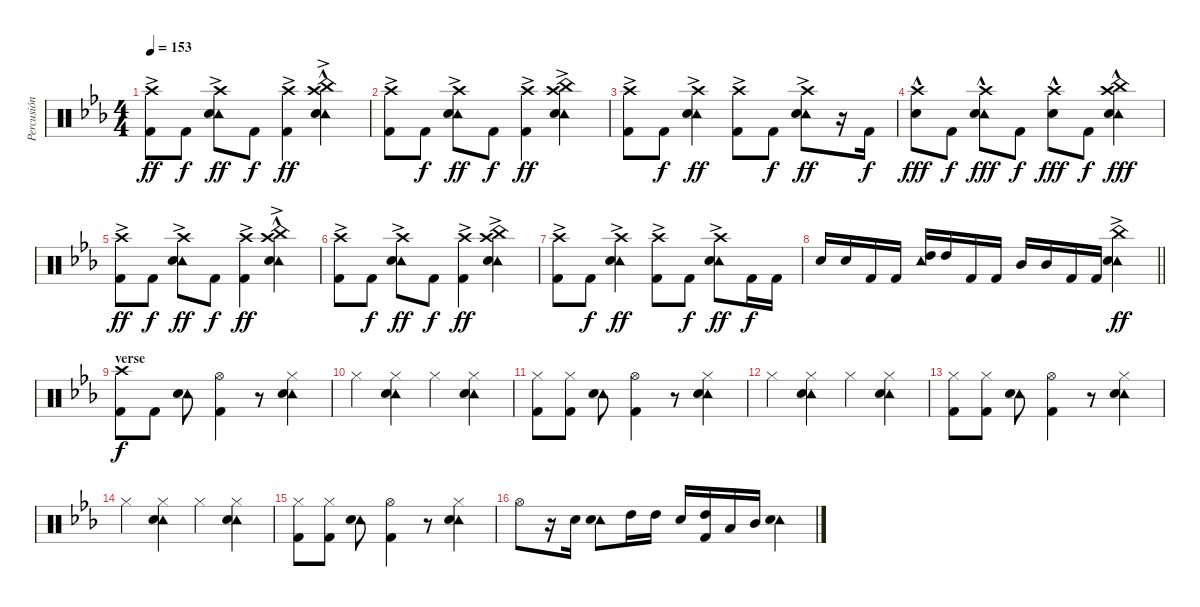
\track ("Percusión" "Percusión") {instrument percussion}
\staff {score}
\articulation defaults
\ts (4 4)
\tempo 153
\clef neutral
\ks eb
("Crash high (hit)"{ac} "Kick (hit) 2").8{dy ff} "Kick (hit) 2".8{dy f} ("Tambourine (hit)" "Crash high (hit)"{ac} "Snare (hit) 2").8{dy ff} "Kick (hit) 2".8{dy f} ("Crash high (hit)"{ac} "Kick (hit) 2").4{dy ff} ("Tambourine (hit)" "China (hit)"{hac} "Crash high (hit)"{ac} "Snare (hit) 2").4 |
("Crash high (hit)"{ac} "Kick (hit) 2").8 "Kick (hit) 2".8{dy f} ("Tambourine (hit)" "Crash high (hit)"{ac} "Snare (hit) 2").8{dy ff} "Kick (hit) 2".8{dy f} ("Crash high (hit)"{ac} "Kick (hit) 2").4{dy ff} ("Tambourine (hit)" "China (hit)"{ac} "Crash high (hit)"{ac} "Snare (hit) 2").4 |
("Crash high (hit)"{ac} "Kick (hit) 2").8 "Kick (hit) 2".8{dy f} ("Tambourine (hit)" "Crash high (hit)"{ac} "Snare (hit) 2").4{dy ff} ("Crash high (hit)"{ac} "Kick (hit) 2").8 "Kick (hit) 2".8{dy f} ("Tambourine (hit)" "Crash high (hit)"{ac} "Snare (hit) 2").8{dy ff} r.16 "Kick (hit) 2".16{dy f} |
("Crash high (hit)"{hac} "Snare (hit) 2").8{dy fff} "Kick (hit) 2".8{dy f} ("Tambourine (hit)" "Crash high (hit)"{hac} "Snare (hit) 2").8{dy fff} "Kick (hit) 2".8{dy f} ("Crash high (hit)"{hac} "Snare (hit) 2").8{dy fff} "Kick (hit) 2".8{dy f} ("Tambourine (hit)" "China (hit)"{hac} "Crash high (hit)"{hac} "Snare (hit) 2").4{dy fff} |
("Crash high (hit)"{ac} "Kick (hit) 2").8{dy ff} "Kick (hit) 2".8{dy f} ("Tambourine (hit)" "Crash high (hit)"{ac} "Snare (hit) 2").8{dy ff} "Kick (hit) 2".8{dy f} ("Crash high (hit)"{ac} "Kick (hit) 2").4{dy ff} ("Tambourine (hit)" "China (hit)"{hac} "Crash high (hit)"{ac} "Snare (hit) 2").4 |
("Crash high (hit)"{ac} "Kick (hit) 2").8 "Kick (hit) 2".8{dy f} ("Tambourine (hit)" "Crash high (hit)"{ac} "Snare (hit) 2").8{dy ff} "Kick (hit) 2".8{dy f} ("Crash high (hit)"{ac} "Kick (hit) 2").4{dy ff} ("Tambourine (hit)" "China (hit)"{ac} "Crash high (hit)"{ac} "Snare (hit) 2").4 |
("Crash high (hit)"{ac} "Kick (hit) 2").8 "Kick (hit) 2".8{dy f} ("Tambourine (hit)" "Crash high (hit)"{ac} "Snare (hit) 2").4{dy ff} ("Crash high (hit)"{ac} "Kick (hit) 2").8 "Kick (hit) 2".8{dy f} ("Tambourine (hit)" "Crash high (hit)"{ac} "Snare (hit) 2").8{dy ff} "Kick (hit) 2".16{dy f} "Kick (hit) 2".16 |
\barLineRight lightlight "Snare (hit) 2".16 "Snare (hit) 2".16 "Kick (hit) 2".16 "Kick (hit) 2".16
("Tambourine (hit)" "High Tom (hit)").16 "High Tom (hit)".16 "Kick (hit) 2".16 "Kick (hit) 2".16 "Mid Tom (hit)".16 "Mid Tom (hit)".16 "Kick (hit) 2".16 "Kick (hit) 2".16 ("Tambourine (hit)" "China (hit)"{ac} "Snare (hit) 2").4{dy ff} |
\section ("" "verse")
("Crash high (hit)" "Kick (hit) 2").8{dy f} "Kick (hit) 2".8 ("Tambourine (hit)" "Snare (hit) 2").8 ("Hi-Hat (open)" "Kick (hit) 2").4 r.8 ("Tambourine (hit)" "Hi-Hat (closed)" "Snare (hit) 2").4 |
"Hi-Hat (closed)".4 ("Tambourine (hit)" "Hi-Hat (closed)" "Snare (hit) 2").4 "Hi-Hat (closed)".4 ("Tambourine (hit)" "Hi-Hat (closed)" "Snare (hit) 2").4 |
("Hi-Hat (closed)" "Kick (hit) 2").8 ("Hi-Hat (closed)" "Kick (hit) 2").8 ("Tambourine (hit)" "Snare (hit) 2").8 ("Hi-Hat (open)" "Kick (hit) 2").4 r.8 ("Tambourine (hit)" "Hi-Hat (closed)" "Snare (hit) 2").4 |
"Hi-Hat (closed)".4 ("Tambourine (hit)" "Hi-Hat (closed)" "Snare (hit) 2").4 "Hi-Hat (closed)".4 ("Tambourine (hit)" "Hi-Hat (closed)" "Snare (hit) 2").4 |
("Hi-Hat (closed)" "Kick (hit) 2").8 ("Hi-Hat (closed)" "Kick (hit) 2").8 ("Tambourine (hit)" "Snare (hit) 2").8 ("Hi-Hat (open)" "Kick (hit) 2").4 r.8 ("Tambourine (hit)" "Hi-Hat (closed)" "Snare (hit) 2").4 |
"Hi-Hat (closed)".4 ("Tambourine (hit)" "Hi-Hat (closed)" "Snare (hit) 2").4 "Hi-Hat (closed)".4 ("Tambourine (hit)" "Hi-Hat (closed)" "Snare (hit) 2").4 |
("Hi-Hat (closed)" "Kick (hit) 2").8 ("Hi-Hat (closed)" "Kick (hit) 2").8 ("Tambourine (hit)" "Snare (hit) 2").8 ("Hi-Hat (open)" "Kick (hit) 2").4 r.8 ("Tambourine (hit)" "Hi-Hat (closed)" "Snare (hit) 2").4 |
"Hi-Hat (open)".8 r.16 "Snare (hit) 2".16 ("Tambourine (hit)" "Snare (hit) 2").8 "High Tom (hit)".16 "High Tom (hit)".16 "Snare (hit) 2".16 ("High Tom (hit)" "Kick (hit) 2").16 "Low Tom (hit)".16 "Mid Tom (hit)".16 ("Tambourine (hit)" "Snare (hit) 2").4
